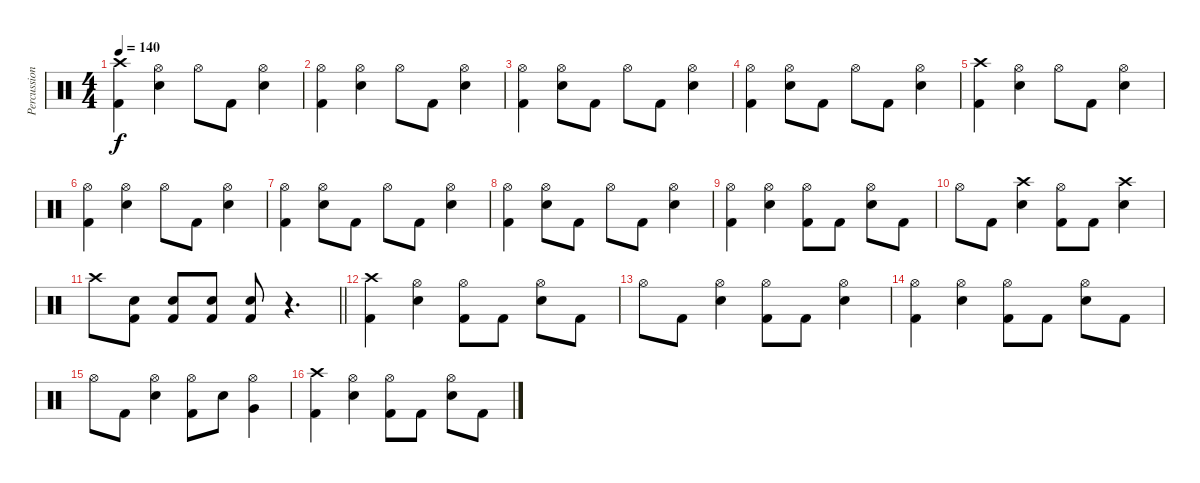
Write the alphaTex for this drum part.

\track ("Percussion" "Percussion") {instrument percussion}
\staff {score}
\articulation defaults
\ts (4 4)
\tempo 140
\clef neutral
\ks c
("Crash high (hit)" "Kick (hit) 2").4{dy f} ("Hi-Hat (open)" "Snare (hit) 2").4 "Hi-Hat (open)".8 "Kick (hit) 2".8 ("Hi-Hat (open)" "Snare (hit) 2").4 |
("Hi-Hat (open)" "Kick (hit) 2").4 ("Hi-Hat (open)" "Snare (hit) 2").4 "Hi-Hat (open)".8 "Kick (hit) 2".8 ("Hi-Hat (open)" "Snare (hit) 2").4 |
("Hi-Hat (open)" "Kick (hit) 2").4 ("Hi-Hat (open)" "Snare (hit) 2").8 "Kick (hit) 2".8 "Hi-Hat (open)".8 "Kick (hit) 2".8 ("Hi-Hat (open)" "Snare (hit) 2").4 |
("Hi-Hat (open)" "Kick (hit) 2").4 ("Hi-Hat (open)" "Snare (hit) 2").8 "Kick (hit) 2".8 "Hi-Hat (open)".8 "Kick (hit) 2".8 ("Hi-Hat (open)" "Snare (hit) 2").4 |
("Crash high (hit)" "Kick (hit) 2").4 ("Hi-Hat (open)" "Snare (hit) 2").4 "Hi-Hat (open)".8 "Kick (hit) 2".8 ("Hi-Hat (open)" "Snare (hit) 2").4 |
("Hi-Hat (open)" "Kick (hit) 2").4 ("Hi-Hat (open)" "Snare (hit) 2").4 "Hi-Hat (open)".8 "Kick (hit) 2".8 ("Hi-Hat (open)" "Snare (hit) 2").4 |
("Hi-Hat (open)" "Kick (hit) 2").4 ("Hi-Hat (open)" "Snare (hit) 2").8 "Kick (hit) 2".8 "Hi-Hat (open)".8 "Kick (hit) 2".8 ("Hi-Hat (open)" "Snare (hit) 2").4 |
("Hi-Hat (open)" "Kick (hit) 2").4 ("Hi-Hat (open)" "Snare (hit) 2").8 "Kick (hit) 2".8 "Hi-Hat (open)".8 "Kick (hit) 2".8 ("Hi-Hat (open)" "Snare (hit) 2").4 |
("Hi-Hat (open)" "Kick (hit) 2").4 ("Hi-Hat (open)" "Snare (hit) 2").4 ("Hi-Hat (open)" "Kick (hit) 2").8 "Kick (hit) 2".8 ("Hi-Hat (open)" "Snare (hit) 2").8 "Kick (hit) 2".8 |
"Hi-Hat (open)".8 "Kick (hit) 2".8 ("Crash high (hit)" "Snare (hit) 2").4 ("Hi-Hat (open)" "Kick (hit) 2").8 "Kick (hit) 2".8 ("Crash high (hit)" "Snare (hit) 2").4 |
\barLineRight lightlight "Crash high (hit)".8
("Snare (hit) 2" "Kick (hit) 2").8 ("Snare (hit) 2" "Kick (hit) 2").8 ("Snare (hit) 2" "Kick (hit) 2").8 ("Snare (hit) 2" "Kick (hit) 2").8 r.4{d} |
("Crash high (hit)" "Kick (hit) 2").4 ("Hi-Hat (open)" "Snare (hit) 2").4 ("Hi-Hat (open)" "Kick (hit) 2").8 "Kick (hit) 2".8 ("Hi-Hat (open)" "Snare (hit) 2").8 "Kick (hit) 2".8 |
"Hi-Hat (open)".8 "Kick (hit) 2".8 ("Hi-Hat (open)" "Snare (hit) 2").4 ("Hi-Hat (open)" "Kick (hit) 2").8 "Kick (hit) 2".8 ("Hi-Hat (open)" "Snare (hit) 2").4 |
("Hi-Hat (open)" "Kick (hit) 2").4 ("Hi-Hat (open)" "Snare (hit) 2").4 ("Hi-Hat (open)" "Kick (hit) 2").8 "Kick (hit) 2".8 ("Hi-Hat (open)" "Snare (hit) 2").8 "Kick (hit) 2".8 |
"Hi-Hat (open)".8 "Kick (hit) 2".8 ("Hi-Hat (open)" "Snare (hit) 2").4 ("Hi-Hat (open)" "Kick (hit) 2").8 "Snare (hit) 2".8 ("Hi-Hat (open)" "Very Low Tom (hit)").4 |
("Crash high (hit)" "Kick (hit) 2").4 ("Hi-Hat (open)" "Snare (hit) 2").4 ("Hi-Hat (open)" "Kick (hit) 2").8 "Kick (hit) 2".8 ("Hi-Hat (open)" "Snare (hit) 2").8 "Kick (hit) 2".8
